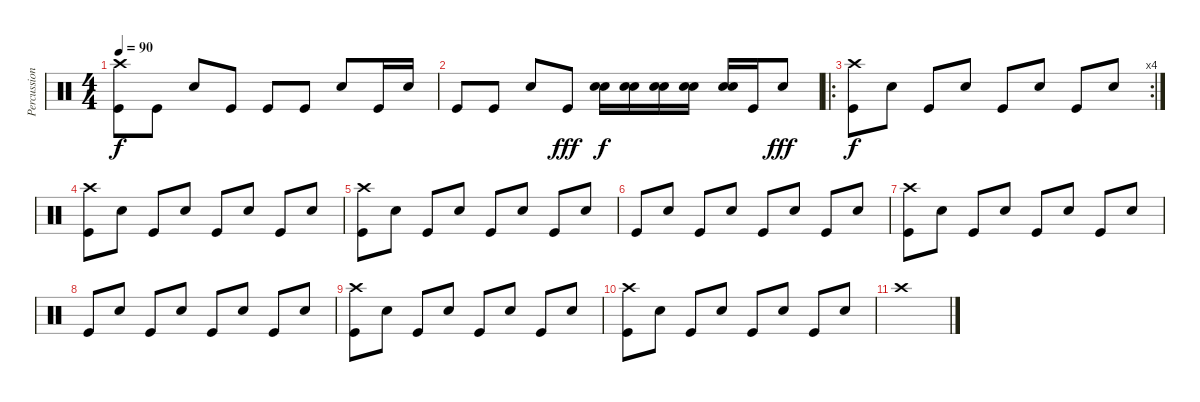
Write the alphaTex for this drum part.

\track ("Percussion" "Percussion") {instrument percussion}
\staff {score}
\articulation defaults
\ts (4 4)
\tempo 90
\clef neutral
\ks c
("Crash high (hit)" "Kick (hit)").8{dy f} "Kick (hit)".8 "Electric Snare (hit)".8 "Kick (hit)".8 "Kick (hit)".8 "Kick (hit)".8 "Electric Snare (hit)".8 "Kick (hit)".16 "Electric Snare (hit)".16 |
"Kick (hit)".8 "Kick (hit)".8 "Electric Snare (hit)".8 "Kick (hit)".8{dy fff} ("Electric Snare (hit)" "Electric Snare (hit)").16{dy f volume 6} ("Electric Snare (hit)" "Electric Snare (hit)").16{volume 16} ("Electric Snare (hit)" "Electric Snare (hit)").16 ("Electric Snare (hit)" "Electric Snare (hit)").16 ("Electric Snare (hit)" "Electric Snare (hit)").16 "Kick (hit)".16 "Electric Snare (hit)".8{dy fff} |
\ro
\rc 4
("Crash high (hit)" "Kick (hit)").8{dy f volume 13} "Electric Snare (hit)".8{volume 13} "Kick (hit)".8 "Electric Snare (hit)".8 "Kick (hit)".8 "Electric Snare (hit)".8 "Kick (hit)".8 "Electric Snare (hit)".8 |
("Crash high (hit)" "Kick (hit)").8 "Electric Snare (hit)".8 "Kick (hit)".8 "Electric Snare (hit)".8 "Kick (hit)".8 "Electric Snare (hit)".8 "Kick (hit)".8 "Electric Snare (hit)".8 |
("Crash high (hit)" "Kick (hit)").8 "Electric Snare (hit)".8 "Kick (hit)".8 "Electric Snare (hit)".8 "Kick (hit)".8 "Electric Snare (hit)".8 "Kick (hit)".8 "Electric Snare (hit)".8 |
"Kick (hit)".8 "Electric Snare (hit)".8 "Kick (hit)".8 "Electric Snare (hit)".8 "Kick (hit)".8 "Electric Snare (hit)".8 "Kick (hit)".8 "Electric Snare (hit)".8 |
("Crash high (hit)" "Kick (hit)").8 "Electric Snare (hit)".8 "Kick (hit)".8 "Electric Snare (hit)".8 "Kick (hit)".8 "Electric Snare (hit)".8 "Kick (hit)".8 "Electric Snare (hit)".8 |
"Kick (hit)".8 "Electric Snare (hit)".8 "Kick (hit)".8 "Electric Snare (hit)".8 "Kick (hit)".8 "Electric Snare (hit)".8 "Kick (hit)".8 "Electric Snare (hit)".8 |
("Crash high (hit)" "Kick (hit)").8 "Electric Snare (hit)".8 "Kick (hit)".8 "Electric Snare (hit)".8 "Kick (hit)".8 "Electric Snare (hit)".8 "Kick (hit)".8 "Electric Snare (hit)".8 |
("Crash high (hit)" "Kick (hit)").8 "Electric Snare (hit)".8 "Kick (hit)".8 "Electric Snare (hit)".8 "Kick (hit)".8 "Electric Snare (hit)".8 "Kick (hit)".8 "Electric Snare (hit)".8 |
"Crash high (hit)".1
